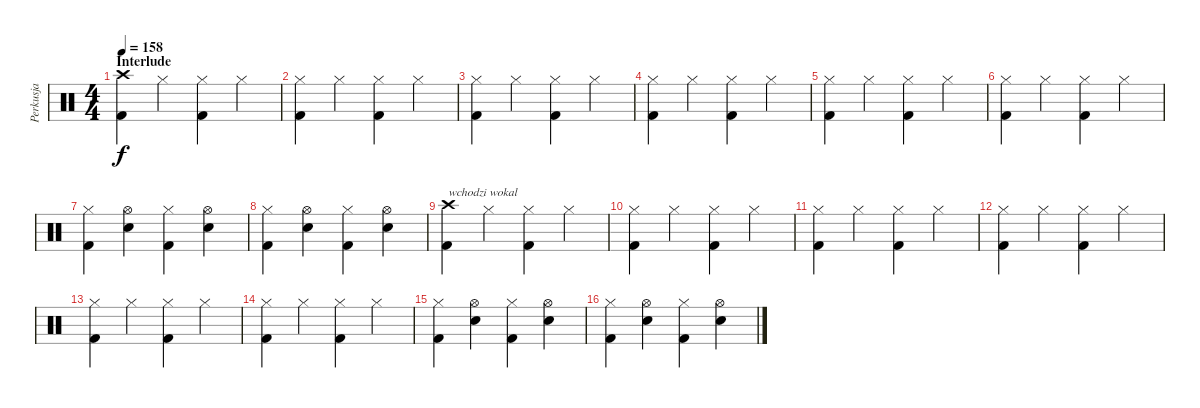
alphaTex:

\track ("Perkusja" "Perkusja") {instrument percussion}
\staff {score}
\articulation defaults
\ts (4 4)
\section ("" "Interlude")
\tempo 158
\clef neutral
\ks c
("Crash high (hit)" "Kick (hit) 2").4{dy f} "Hi-Hat (closed)".4 ("Hi-Hat (closed)" "Kick (hit) 2").4 "Hi-Hat (closed)".4 |
("Hi-Hat (closed)" "Kick (hit) 2").4 "Hi-Hat (closed)".4 ("Hi-Hat (closed)" "Kick (hit) 2").4 "Hi-Hat (closed)".4 |
("Hi-Hat (closed)" "Kick (hit) 2").4 "Hi-Hat (closed)".4 ("Hi-Hat (closed)" "Kick (hit) 2").4 "Hi-Hat (closed)".4 |
("Hi-Hat (closed)" "Kick (hit) 2").4 "Hi-Hat (closed)".4 ("Hi-Hat (closed)" "Kick (hit) 2").4 "Hi-Hat (closed)".4 |
("Hi-Hat (closed)" "Kick (hit) 2").4 "Hi-Hat (closed)".4 ("Hi-Hat (closed)" "Kick (hit) 2").4 "Hi-Hat (closed)".4 |
("Hi-Hat (closed)" "Kick (hit) 2").4 "Hi-Hat (closed)".4 ("Hi-Hat (closed)" "Kick (hit) 2").4 "Hi-Hat (closed)".4 |
("Hi-Hat (closed)" "Kick (hit) 2").4 ("Hi-Hat (open)" "Snare (hit) 2").4 ("Hi-Hat (closed)" "Kick (hit) 2").4 ("Hi-Hat (open)" "Snare (hit) 2").4 |
("Hi-Hat (closed)" "Kick (hit) 2").4 ("Hi-Hat (open)" "Snare (hit) 2").4 ("Hi-Hat (closed)" "Kick (hit) 2").4 ("Hi-Hat (open)" "Snare (hit) 2").4 |
("Crash high (hit)" "Kick (hit) 2").4{txt "wchodzi wokal"} "Hi-Hat (closed)".4 ("Hi-Hat (closed)" "Kick (hit) 2").4 "Hi-Hat (closed)".4 |
("Hi-Hat (closed)" "Kick (hit) 2").4 "Hi-Hat (closed)".4 ("Hi-Hat (closed)" "Kick (hit) 2").4 "Hi-Hat (closed)".4 |
("Hi-Hat (closed)" "Kick (hit) 2").4 "Hi-Hat (closed)".4 ("Hi-Hat (closed)" "Kick (hit) 2").4 "Hi-Hat (closed)".4 |
("Hi-Hat (closed)" "Kick (hit) 2").4 "Hi-Hat (closed)".4 ("Hi-Hat (closed)" "Kick (hit) 2").4 "Hi-Hat (closed)".4 |
("Hi-Hat (closed)" "Kick (hit) 2").4 "Hi-Hat (closed)".4 ("Hi-Hat (closed)" "Kick (hit) 2").4 "Hi-Hat (closed)".4 |
("Hi-Hat (closed)" "Kick (hit) 2").4 "Hi-Hat (closed)".4 ("Hi-Hat (closed)" "Kick (hit) 2").4 "Hi-Hat (closed)".4 |
("Hi-Hat (closed)" "Kick (hit) 2").4 ("Hi-Hat (open)" "Snare (hit) 2").4 ("Hi-Hat (closed)" "Kick (hit) 2").4 ("Hi-Hat (open)" "Snare (hit) 2").4 |
("Hi-Hat (closed)" "Kick (hit) 2").4 ("Hi-Hat (open)" "Snare (hit) 2").4 ("Hi-Hat (closed)" "Kick (hit) 2").4 ("Hi-Hat (open)" "Snare (hit) 2").4
